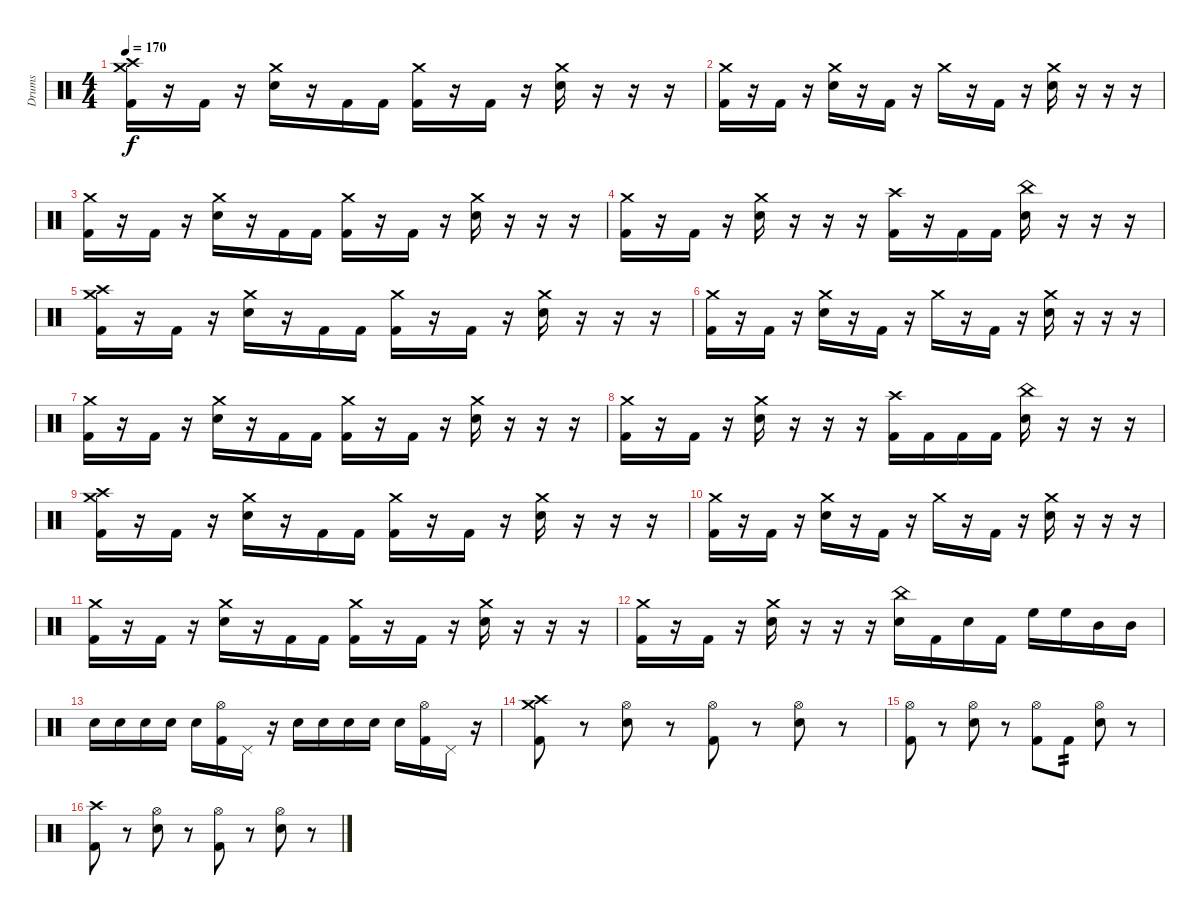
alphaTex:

\track ("Drums" "Drums") {instrument percussion}
\staff {score}
\articulation defaults
\ts (4 4)
\tempo 170
\clef neutral
\ks c
("Crash medium (hit)" "Crash high (hit)" "Kick (hit) 2").16{dy f} r.16 "Kick (hit) 2".16 r.16 ("Crash medium (hit)" "Electric Snare (hit)").16 r.16 "Kick (hit) 2".16 "Kick (hit) 2".16 ("Crash medium (hit)" "Kick (hit) 2").16 r.16 "Kick (hit) 2".16 r.16 ("Crash medium (hit)" "Electric Snare (hit)").16 r.16 r.16 r.16 |
("Crash medium (hit)" "Kick (hit) 2").16 r.16 "Kick (hit) 2".16 r.16 ("Crash medium (hit)" "Electric Snare (hit)").16 r.16 "Kick (hit) 2".16 r.16 "Crash medium (hit)".16 r.16 "Kick (hit) 2".16 r.16 ("Crash medium (hit)" "Electric Snare (hit)").16 r.16 r.16 r.16 |
("Crash medium (hit)" "Kick (hit) 2").16 r.16 "Kick (hit) 2".16 r.16 ("Crash medium (hit)" "Electric Snare (hit)").16 r.16 "Kick (hit) 2".16 "Kick (hit) 2".16 ("Crash medium (hit)" "Kick (hit) 2").16 r.16 "Kick (hit) 2".16 r.16 ("Crash medium (hit)" "Electric Snare (hit)").16 r.16 r.16 r.16 |
("Crash medium (hit)" "Kick (hit) 2").16 r.16 "Kick (hit) 2".16 r.16 ("Crash medium (hit)" "Electric Snare (hit)").16 r.16 r.16 r.16 ("Crash high (hit)" "Kick (hit) 2").16 r.16 "Kick (hit) 2".16 "Kick (hit) 2".16 ("China (hit)" "Electric Snare (hit)").16 r.16 r.16 r.16 |
("Crash medium (hit)" "Crash high (hit)" "Kick (hit) 2").16 r.16 "Kick (hit) 2".16 r.16 ("Crash medium (hit)" "Electric Snare (hit)").16 r.16 "Kick (hit) 2".16 "Kick (hit) 2".16 ("Crash medium (hit)" "Kick (hit) 2").16 r.16 "Kick (hit) 2".16 r.16 ("Crash medium (hit)" "Electric Snare (hit)").16 r.16 r.16 r.16 |
("Crash medium (hit)" "Kick (hit) 2").16 r.16 "Kick (hit) 2".16 r.16 ("Crash medium (hit)" "Electric Snare (hit)").16 r.16 "Kick (hit) 2".16 r.16 "Crash medium (hit)".16 r.16 "Kick (hit) 2".16 r.16 ("Crash medium (hit)" "Electric Snare (hit)").16 r.16 r.16 r.16 |
("Crash medium (hit)" "Kick (hit) 2").16 r.16 "Kick (hit) 2".16 r.16 ("Crash medium (hit)" "Electric Snare (hit)").16 r.16 "Kick (hit) 2".16 "Kick (hit) 2".16 ("Crash medium (hit)" "Kick (hit) 2").16 r.16 "Kick (hit) 2".16 r.16 ("Crash medium (hit)" "Electric Snare (hit)").16 r.16 r.16 r.16 |
("Crash medium (hit)" "Kick (hit) 2").16 r.16 "Kick (hit) 2".16 r.16 ("Crash medium (hit)" "Electric Snare (hit)").16 r.16 r.16 r.16 ("Crash high (hit)" "Kick (hit) 2").16 "Kick (hit) 2".16 "Kick (hit) 2".16 "Kick (hit) 2".16 ("China (hit)" "Electric Snare (hit)").16 r.16 r.16 r.16 |
("Crash medium (hit)" "Crash high (hit)" "Kick (hit) 2").16 r.16 "Kick (hit) 2".16 r.16 ("Crash medium (hit)" "Electric Snare (hit)").16 r.16 "Kick (hit) 2".16 "Kick (hit) 2".16 ("Crash medium (hit)" "Kick (hit) 2").16 r.16 "Kick (hit) 2".16 r.16 ("Crash medium (hit)" "Electric Snare (hit)").16 r.16 r.16 r.16 |
("Crash medium (hit)" "Kick (hit) 2").16 r.16 "Kick (hit) 2".16 r.16 ("Crash medium (hit)" "Electric Snare (hit)").16 r.16 "Kick (hit) 2".16 r.16 "Crash medium (hit)".16 r.16 "Kick (hit) 2".16 r.16 ("Crash medium (hit)" "Electric Snare (hit)").16 r.16 r.16 r.16 |
("Crash medium (hit)" "Kick (hit) 2").16 r.16 "Kick (hit) 2".16 r.16 ("Crash medium (hit)" "Electric Snare (hit)").16 r.16 "Kick (hit) 2".16 "Kick (hit) 2".16 ("Crash medium (hit)" "Kick (hit) 2").16 r.16 "Kick (hit) 2".16 r.16 ("Crash medium (hit)" "Electric Snare (hit)").16 r.16 r.16 r.16 |
("Crash medium (hit)" "Kick (hit) 2").16 r.16 "Kick (hit) 2".16 r.16 ("Crash medium (hit)" "Electric Snare (hit)").16 r.16 r.16 r.16 ("China (hit)" "Electric Snare (hit)").16 "Kick (hit) 2".16 "Electric Snare (hit)".16 "Kick (hit) 2".16 "High Floor Tom (hit)".16 "High Floor Tom (hit)".16 "Mid Tom (hit)".16 "Mid Tom (hit)".16 |
"Electric Snare (hit)".16 "Electric Snare (hit)".16 "Electric Snare (hit)".16 "Electric Snare (hit)".16 "Electric Snare (hit)".16 ("Hi-Hat (open)" "Kick (hit) 2").16 "Pedal Hi-Hat (hit)".16 r.16 "Electric Snare (hit)".16 "Electric Snare (hit)".16 "Electric Snare (hit)".16 "Electric Snare (hit)".16 "Electric Snare (hit)".16 ("Hi-Hat (open)" "Kick (hit) 2").16 "Pedal Hi-Hat (hit)".16 r.16 |
\section ("" "")
("Crash high (hit)" "Crash medium (hit)" "Kick (hit) 2").8 r.8 ("Hi-Hat (open)" "Electric Snare (hit)").8 r.8 ("Hi-Hat (open)" "Kick (hit) 2").8 r.8 ("Hi-Hat (open)" "Electric Snare (hit)").8 r.8 |
("Hi-Hat (open)" "Kick (hit) 2").8 r.8 ("Hi-Hat (open)" "Electric Snare (hit)").8 r.8 ("Hi-Hat (open)" "Kick (hit) 2").8 "Kick (hit) 2".8{tp 2} ("Hi-Hat (open)" "Electric Snare (hit)").8 r.8 |
("Crash high (hit)" "Kick (hit) 2").8 r.8 ("Hi-Hat (open)" "Electric Snare (hit)").8 r.8 ("Hi-Hat (open)" "Kick (hit) 2").8 r.8 ("Hi-Hat (open)" "Electric Snare (hit)").8 r.8
